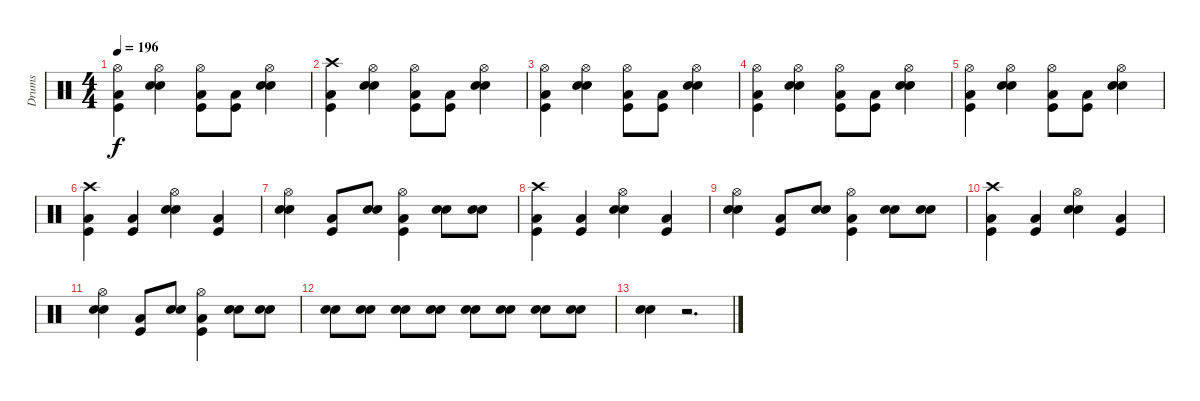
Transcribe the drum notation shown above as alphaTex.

\track ("Drums" "Drums") {instrument percussion}
\staff {score}
\articulation defaults
\ts (4 4)
\tempo 196
\clef neutral
\ks c
("Hi-Hat (open)" "Kick (hit)" "Low Tom (hit)").4{dy f} ("Hi-Hat (open)" "Snare (hit) 2" "Electric Snare (hit)").4 ("Hi-Hat (open)" "Kick (hit)" "Low Tom (hit)").8 ("Kick (hit)" "Low Tom (hit)").8 ("Hi-Hat (open)" "Snare (hit) 2" "Electric Snare (hit)").4 |
("Crash high (hit)" "Kick (hit)" "Low Tom (hit)").4 ("Hi-Hat (open)" "Snare (hit) 2" "Electric Snare (hit)").4 ("Hi-Hat (open)" "Kick (hit)" "Low Tom (hit)").8 ("Kick (hit)" "Low Tom (hit)").8 ("Hi-Hat (open)" "Snare (hit) 2" "Electric Snare (hit)").4 |
("Hi-Hat (open)" "Kick (hit)" "Low Tom (hit)").4 ("Hi-Hat (open)" "Snare (hit) 2" "Electric Snare (hit)").4 ("Hi-Hat (open)" "Kick (hit)" "Low Tom (hit)").8 ("Kick (hit)" "Low Tom (hit)").8 ("Hi-Hat (open)" "Snare (hit) 2" "Electric Snare (hit)").4 |
("Hi-Hat (open)" "Kick (hit)" "Low Tom (hit)").4 ("Hi-Hat (open)" "Snare (hit) 2" "Electric Snare (hit)").4 ("Hi-Hat (open)" "Kick (hit)" "Low Tom (hit)").8 ("Kick (hit)" "Low Tom (hit)").8 ("Hi-Hat (open)" "Snare (hit) 2" "Electric Snare (hit)").4 |
("Hi-Hat (open)" "Kick (hit)" "Low Tom (hit)").4 ("Hi-Hat (open)" "Snare (hit) 2" "Electric Snare (hit)").4 ("Hi-Hat (open)" "Kick (hit)" "Low Tom (hit)").8 ("Kick (hit)" "Low Tom (hit)").8 ("Hi-Hat (open)" "Snare (hit) 2" "Electric Snare (hit)").4 |
("Crash high (hit)" "Kick (hit)" "Low Tom (hit)").4 ("Kick (hit)" "Low Tom (hit)").4 ("Hi-Hat (open)" "Snare (hit) 2" "Electric Snare (hit)").4 ("Low Tom (hit)" "Kick (hit)").4 |
("Hi-Hat (open)" "Snare (hit) 2" "Electric Snare (hit)").4 ("Kick (hit)" "Low Tom (hit)").8 ("Snare (hit) 2" "Electric Snare (hit)").8 ("Hi-Hat (open)" "Kick (hit)" "Low Tom (hit)").4 ("Snare (hit) 2" "Electric Snare (hit)").8 ("Snare (hit) 2" "Electric Snare (hit)").8 |
("Crash high (hit)" "Kick (hit)" "Low Tom (hit)").4 ("Kick (hit)" "Low Tom (hit)").4 ("Hi-Hat (open)" "Snare (hit) 2" "Electric Snare (hit)").4 ("Low Tom (hit)" "Kick (hit)").4 |
("Hi-Hat (open)" "Snare (hit) 2" "Electric Snare (hit)").4 ("Kick (hit)" "Low Tom (hit)").8 ("Snare (hit) 2" "Electric Snare (hit)").8 ("Hi-Hat (open)" "Kick (hit)" "Low Tom (hit)").4 ("Snare (hit) 2" "Electric Snare (hit)").8 ("Snare (hit) 2" "Electric Snare (hit)").8 |
("Crash high (hit)" "Kick (hit)" "Low Tom (hit)").4 ("Kick (hit)" "Low Tom (hit)").4 ("Hi-Hat (open)" "Snare (hit) 2" "Electric Snare (hit)").4 ("Low Tom (hit)" "Kick (hit)").4 |
("Hi-Hat (open)" "Snare (hit) 2" "Electric Snare (hit)").4 ("Kick (hit)" "Low Tom (hit)").8 ("Snare (hit) 2" "Electric Snare (hit)").8 ("Hi-Hat (open)" "Kick (hit)" "Low Tom (hit)").4 ("Snare (hit) 2" "Electric Snare (hit)").8 ("Snare (hit) 2" "Electric Snare (hit)").8 |
("Snare (hit) 2" "Electric Snare (hit)").8 ("Snare (hit) 2" "Electric Snare (hit)").8 ("Snare (hit) 2" "Electric Snare (hit)").8 ("Snare (hit) 2" "Electric Snare (hit)").8 ("Snare (hit) 2" "Electric Snare (hit)").8 ("Snare (hit) 2" "Electric Snare (hit)").8 ("Snare (hit) 2" "Electric Snare (hit)").8 ("Snare (hit) 2" "Electric Snare (hit)").8 |
("Snare (hit) 2" "Electric Snare (hit)").4 r.2{d}
